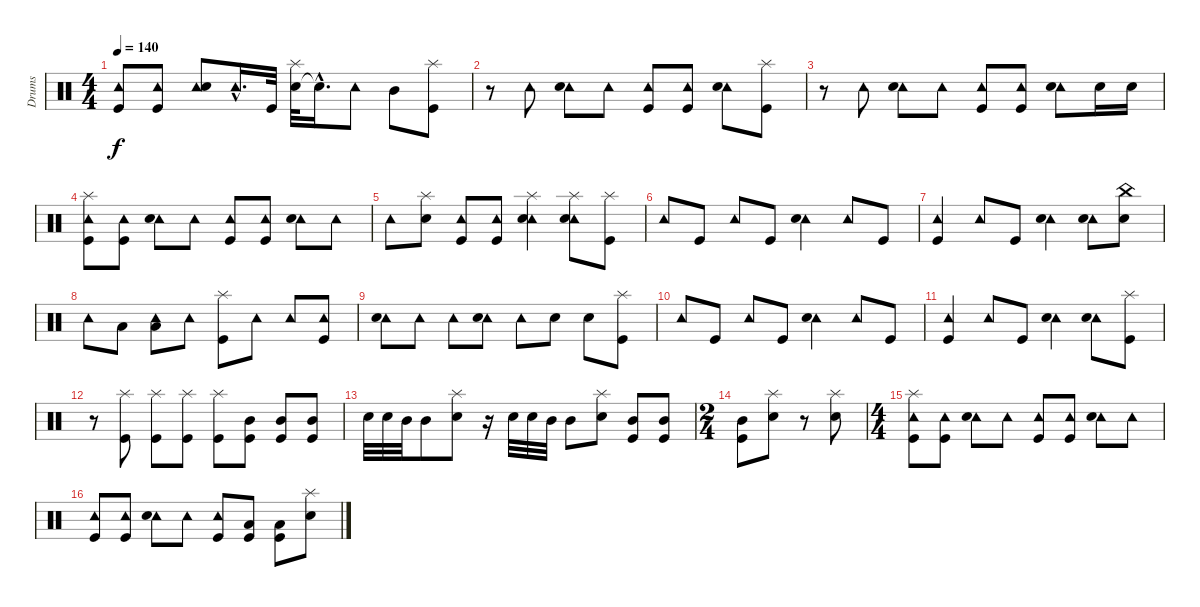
\track ("Drums" "Drums") {instrument percussion}
\staff {score}
\articulation defaults
\ts (4 4)
\tempo 140
\clef neutral
\ks c
("Tambourine (hit)" "Kick (hit)").8{dy f} ("Tambourine (hit)" "Kick (hit)").8 ("Tambourine (hit)" "Snare (hit) 2").8 "Tambourine (hit)"{hac}.16{d} "Kick (hit)".32 ("Snare (hit) 2" "Splash (hit)").32 "Snare (hit)"{hac t}.16{d} "Tambourine (hit)".8 "Mid Tom (hit)".8 ("Kick (hit)" "Splash (hit)").8 |
r.8 "Tambourine (hit)".8 ("Tambourine (hit)" "Snare (hit) 2").8 "Tambourine (hit)".8 ("Tambourine (hit)" "Kick (hit)").8 ("Tambourine (hit)" "Kick (hit)").8 ("Tambourine (hit)" "Snare (hit) 2").8 ("Kick (hit)" "Splash (hit)").8 |
r.8 "Tambourine (hit)".8 ("Tambourine (hit)" "Snare (hit) 2").8 "Tambourine (hit)".8 ("Tambourine (hit)" "Kick (hit)").8 ("Tambourine (hit)" "Kick (hit)").8 ("Tambourine (hit)" "Snare (hit) 2").8 "Snare (hit) 2".16 "Snare (hit) 2".16 |
("Tambourine (hit)" "Kick (hit)" "Splash (hit)").8 ("Tambourine (hit)" "Kick (hit)").8 ("Tambourine (hit)" "Snare (hit) 2").8 "Tambourine (hit)".8 ("Tambourine (hit)" "Kick (hit)").8 ("Tambourine (hit)" "Kick (hit)").8 ("Tambourine (hit)" "Snare (hit) 2").8 "Tambourine (hit)".8 |
"Tambourine (hit)".8 ("Snare (hit) 2" "Splash (hit)").8 ("Tambourine (hit)" "Kick (hit)").8 ("Tambourine (hit)" "Kick (hit)").8 ("Tambourine (hit)" "Snare (hit) 2" "Splash (hit)").4 ("Tambourine (hit)" "Snare (hit) 2" "Splash (hit)").8 ("Kick (hit)" "Splash (hit)").8 |
"Tambourine (hit)".8 "Kick (hit)".8 "Tambourine (hit)".8 "Kick (hit)".8 ("Tambourine (hit)" "Snare (hit) 2").4 "Tambourine (hit)".8 "Kick (hit)".8 |
("Tambourine (hit)" "Kick (hit)").4 "Tambourine (hit)".8 "Kick (hit)".8 ("Tambourine (hit)" "Snare (hit) 2").4 ("Tambourine (hit)" "Snare (hit) 2").8 ("Snare (hit) 2" "China (hit)").8 |
"Tambourine (hit)".8 "Low Tom (hit)".8 ("Tambourine (hit)" "Low Tom (hit)").8 "Tambourine (hit)".8 ("Kick (hit)" "Splash (hit)").8 "Tambourine (hit)".8 "Tambourine (hit)".8 ("Tambourine (hit)" "Kick (hit)").8 |
("Tambourine (hit)" "Snare (hit) 2").8 "Tambourine (hit)".8 "Tambourine (hit)".8 ("Tambourine (hit)" "Snare (hit) 2").8 "Tambourine (hit)".8 "Snare (hit) 2".8 "Snare (hit) 2".8 ("Kick (hit)" "Splash (hit)").8 |
"Tambourine (hit)".8 "Kick (hit)".8 "Tambourine (hit)".8 "Kick (hit)".8 ("Tambourine (hit)" "Snare (hit) 2").4 "Tambourine (hit)".8 "Kick (hit)".8 |
("Tambourine (hit)" "Kick (hit)").4 "Tambourine (hit)".8 "Kick (hit)".8 ("Tambourine (hit)" "Snare (hit) 2").4 ("Tambourine (hit)" "Snare (hit) 2").8 ("Kick (hit)" "Splash (hit)").8 |
r.8 ("Kick (hit)" "Splash (hit)").8 ("Kick (hit)" "Splash (hit)").8 ("Kick (hit)" "Splash (hit)").8 ("Kick (hit)" "Splash (hit)").8 ("Kick (hit)" "Mid Tom (hit)").8 ("Kick (hit)" "Mid Tom (hit)").8 ("Kick (hit)" "Mid Tom (hit)").8 |
"Snare (hit) 2".32 "Snare (hit) 2".32 "Mid Tom (hit)".32 "Mid Tom (hit)".8 ("Snare (hit) 2" "Splash (hit)").8 r.16 "Snare (hit) 2".32 "Snare (hit) 2".32 "Mid Tom (hit)".32 "Mid Tom (hit)".8 ("Snare (hit) 2" "Splash (hit)").8 ("Kick (hit)" "Mid Tom (hit)").8 ("Kick (hit)" "Mid Tom (hit)").8 |
\ts (2 4)
("Kick (hit)" "Mid Tom (hit)").8 ("Snare (hit) 2" "Splash (hit)").8 r.8 ("Snare (hit) 2" "Splash (hit)").8 |
\ts (4 4)
("Tambourine (hit)" "Kick (hit)" "Splash (hit)").8 ("Tambourine (hit)" "Kick (hit)").8 ("Tambourine (hit)" "Snare (hit) 2").8 "Tambourine (hit)".8 ("Tambourine (hit)" "Kick (hit)").8 ("Tambourine (hit)" "Kick (hit)").8 ("Tambourine (hit)" "Snare (hit) 2").8 "Tambourine (hit)".8 |
("Tambourine (hit)" "Kick (hit)").8 ("Tambourine (hit)" "Kick (hit)").8 ("Tambourine (hit)" "Snare (hit) 2").8 "Tambourine (hit)".8 ("Tambourine (hit)" "Kick (hit)").8 ("Kick (hit)" "Low Tom (hit)").8 ("Kick (hit)" "Low Tom (hit)").8 ("Snare (hit) 2" "Splash (hit)").8
